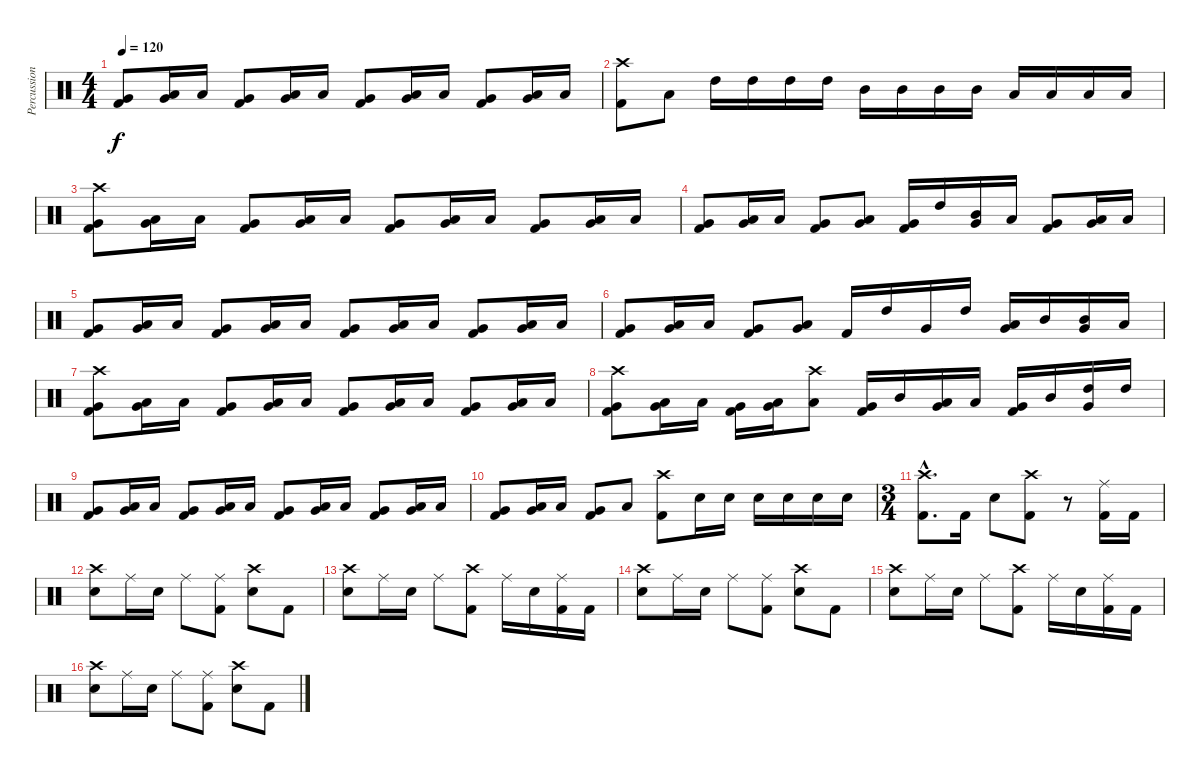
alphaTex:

\track ("Percussion" "Percussion") {instrument percussion}
\staff {score}
\articulation defaults
\ts (4 4)
\tempo 120
\clef neutral
\ks c
("Very Low Tom (hit)" "Kick (hit) 2").8{dy f} ("Low Tom (hit)" "Very Low Tom (hit)").16 "Low Tom (hit)".16 ("Very Low Tom (hit)" "Kick (hit) 2").8 ("Low Tom (hit)" "Very Low Tom (hit)").16 "Low Tom (hit)".16 ("Very Low Tom (hit)" "Kick (hit) 2").8 ("Low Tom (hit)" "Very Low Tom (hit)").16 "Low Tom (hit)".16 ("Very Low Tom (hit)" "Kick (hit) 2").8 ("Low Tom (hit)" "Very Low Tom (hit)").16 "Low Tom (hit)".16 |
("Crash high (hit)" "Kick (hit) 2").8 "Low Tom (hit)".8 "High Tom (hit)".16 "High Tom (hit)".16 "High Tom (hit)".16 "High Tom (hit)".16 "Mid Tom (hit)".16 "Mid Tom (hit)".16 "Mid Tom (hit)".16 "Mid Tom (hit)".16 "Low Tom (hit)".16 "Low Tom (hit)".16 "Low Tom (hit)".16 "Low Tom (hit)".16 |
("Crash high (hit)" "Very Low Tom (hit)" "Kick (hit) 2").8 ("Low Tom (hit)" "Very Low Tom (hit)").16 "Low Tom (hit)".16 ("Very Low Tom (hit)" "Kick (hit) 2").8 ("Low Tom (hit)" "Very Low Tom (hit)").16 "Low Tom (hit)".16 ("Very Low Tom (hit)" "Kick (hit) 2").8 ("Low Tom (hit)" "Very Low Tom (hit)").16 "Low Tom (hit)".16 ("Very Low Tom (hit)" "Kick (hit) 2").8 ("Low Tom (hit)" "Very Low Tom (hit)").16 "Low Tom (hit)".16 |
("Very Low Tom (hit)" "Kick (hit) 2").8 ("Low Tom (hit)" "Very Low Tom (hit)").16 "Low Tom (hit)".16 ("Very Low Tom (hit)" "Kick (hit) 2").8 ("Low Tom (hit)" "Very Low Tom (hit)").8 ("Very Low Tom (hit)" "Kick (hit) 2").16 "High Tom (hit)".16 ("Mid Tom (hit)" "Very Low Tom (hit)").16 "Low Tom (hit)".16 ("Kick (hit) 2" "Very Low Tom (hit)").8 ("Low Tom (hit)" "Very Low Tom (hit)").16 "Low Tom (hit)".16 |
("Very Low Tom (hit)" "Kick (hit) 2").8 ("Low Tom (hit)" "Very Low Tom (hit)").16 "Low Tom (hit)".16 ("Very Low Tom (hit)" "Kick (hit) 2").8 ("Low Tom (hit)" "Very Low Tom (hit)").16 "Low Tom (hit)".16 ("Very Low Tom (hit)" "Kick (hit) 2").8 ("Low Tom (hit)" "Very Low Tom (hit)").16 "Low Tom (hit)".16 ("Very Low Tom (hit)" "Kick (hit) 2").8 ("Low Tom (hit)" "Very Low Tom (hit)").16 "Low Tom (hit)".16 |
("Very Low Tom (hit)" "Kick (hit) 2").8 ("Low Tom (hit)" "Very Low Tom (hit)").16 "Low Tom (hit)".16 ("Very Low Tom (hit)" "Kick (hit) 2").8 ("Low Tom (hit)" "Very Low Tom (hit)").8 "Kick (hit) 2".16 "High Tom (hit)".16 "Very Low Tom (hit)".16 "High Tom (hit)".16 ("Low Tom (hit)" "Very Low Tom (hit)").16 "Mid Tom (hit)".16 ("Mid Tom (hit)" "Very Low Tom (hit)").16 "Low Tom (hit)".16 |
("Crash high (hit)" "Very Low Tom (hit)" "Kick (hit) 2").8 ("Low Tom (hit)" "Very Low Tom (hit)").16 "Low Tom (hit)".16 ("Very Low Tom (hit)" "Kick (hit) 2").8 ("Low Tom (hit)" "Very Low Tom (hit)").16 "Low Tom (hit)".16 ("Very Low Tom (hit)" "Kick (hit) 2").8 ("Low Tom (hit)" "Very Low Tom (hit)").16 "Low Tom (hit)".16 ("Very Low Tom (hit)" "Kick (hit) 2").8 ("Low Tom (hit)" "Very Low Tom (hit)").16 "Low Tom (hit)".16 |
("Crash high (hit)" "Very Low Tom (hit)" "Kick (hit) 2").8 ("Low Tom (hit)" "Very Low Tom (hit)").16 "Low Tom (hit)".16 ("Very Low Tom (hit)" "Kick (hit) 2").16 ("Low Tom (hit)" "Very Low Tom (hit)").16 ("Crash high (hit)" "Low Tom (hit)").8 ("Very Low Tom (hit)" "Kick (hit) 2").16 "Mid Tom (hit)".16 ("Low Tom (hit)" "Very Low Tom (hit)").16 "Low Tom (hit)".16 ("Very Low Tom (hit)" "Kick (hit) 2").16 "Mid Tom (hit)".16 ("High Tom (hit)" "Very Low Tom (hit)").16 "High Tom (hit)".16 |
("Very Low Tom (hit)" "Kick (hit) 2").8 ("Low Tom (hit)" "Very Low Tom (hit)").16 "Low Tom (hit)".16 ("Very Low Tom (hit)" "Kick (hit) 2").8 ("Low Tom (hit)" "Very Low Tom (hit)").16 "Low Tom (hit)".16 ("Very Low Tom (hit)" "Kick (hit) 2").8 ("Low Tom (hit)" "Very Low Tom (hit)").16 "Low Tom (hit)".16 ("Very Low Tom (hit)" "Kick (hit) 2").8 ("Low Tom (hit)" "Very Low Tom (hit)").16 "Low Tom (hit)".16 |
("Very Low Tom (hit)" "Kick (hit) 2").8 ("Low Tom (hit)" "Very Low Tom (hit)").16 "Low Tom (hit)".16 ("Very Low Tom (hit)" "Kick (hit) 2").8 "Low Tom (hit)".8 ("Crash high (hit)" "Kick (hit) 2").8 "Snare (hit) 2".16 "Snare (hit) 2".16 "Snare (hit) 2".16 "Snare (hit) 2".16 "Snare (hit) 2".16 "Snare (hit) 2".16 |
\ts (3 4)
("Crash high (hit)"{hac} "Kick (hit) 2"{hac}).8{d} "Kick (hit) 2".16 "Snare (hit) 2".8 ("Crash high (hit)" "Kick (hit) 2").8 r.8 ("Ride (middle)" "Kick (hit) 2").16 "Kick (hit) 2".16 |
("Crash high (hit)" "Snare (hit) 2").8 "Ride (middle)".16 "Snare (hit) 2".16 "Ride (middle)".8 ("Ride (middle)" "Kick (hit) 2").8 ("Crash high (hit)" "Snare (hit) 2").8 "Kick (hit) 2".8 |
("Crash high (hit)" "Snare (hit) 2").8 "Ride (middle)".16 "Snare (hit) 2".16 "Ride (middle)".8 ("Crash high (hit)" "Kick (hit) 2").8 "Ride (middle)".16 "Snare (hit) 2".16 ("Ride (middle)" "Kick (hit) 2").16 "Kick (hit) 2".16 |
("Crash high (hit)" "Snare (hit) 2").8 "Ride (middle)".16 "Snare (hit) 2".16 "Ride (middle)".8 ("Ride (middle)" "Kick (hit) 2").8 ("Crash high (hit)" "Snare (hit) 2").8 "Kick (hit) 2".8 |
("Crash high (hit)" "Snare (hit) 2").8 "Ride (middle)".16 "Snare (hit) 2".16 "Ride (middle)".8 ("Crash high (hit)" "Kick (hit) 2").8 "Ride (middle)".16 "Snare (hit) 2".16 ("Ride (middle)" "Kick (hit) 2").16 "Kick (hit) 2".16 |
("Crash high (hit)" "Snare (hit) 2").8 "Ride (middle)".16 "Snare (hit) 2".16 "Ride (middle)".8 ("Ride (middle)" "Kick (hit) 2").8 ("Crash high (hit)" "Snare (hit) 2").8 "Kick (hit) 2".8
